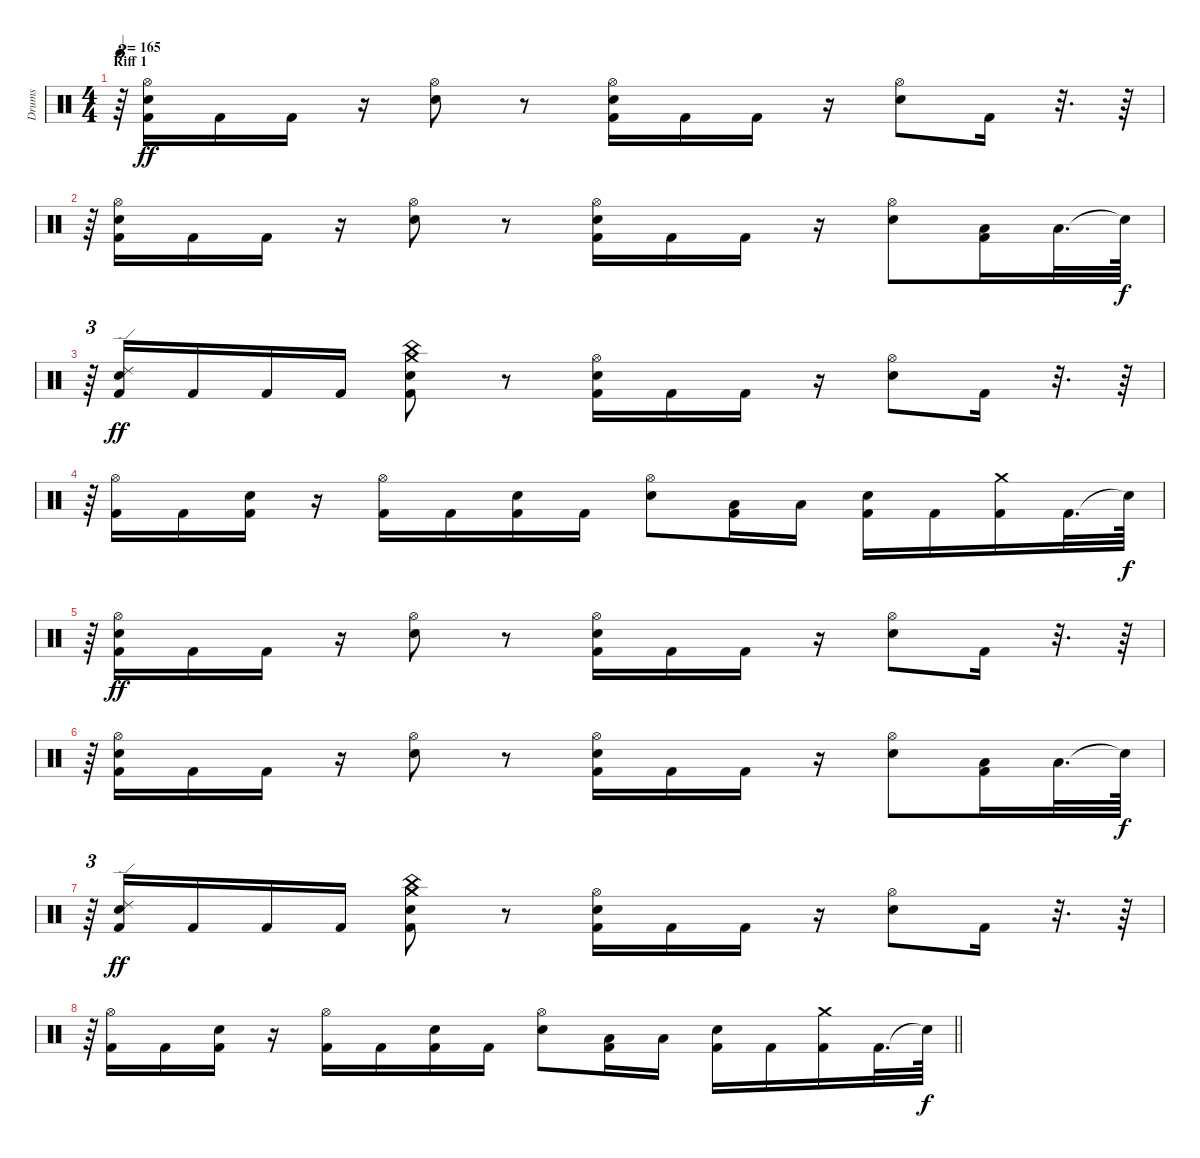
\track ("Drums" "Drums") {instrument percussion}
\staff {score}
\articulation defaults
\ts (4 4)
\section ("" "Riff 1")
\tempo 165
\clef neutral
\ks c
r.64{tu (3 2) dy ff} ("Kick (hit) 2" "Snare (hit) 2" "Hi-Hat (open)").16 "Kick (hit) 2".16 "Kick (hit) 2".16 r.16 ("Snare (hit) 2" "Hi-Hat (open)").8 r.8 ("Kick (hit) 2" "Snare (hit) 2" "Hi-Hat (open)").16 "Kick (hit) 2".16 "Kick (hit) 2".16 r.16 ("Snare (hit) 2" "Hi-Hat (open)").8 "Kick (hit) 2".16 r.32{d} r.64 |
r.64{tu (3 2)} ("Kick (hit) 2" "Snare (hit) 2" "Hi-Hat (open)").16 "Kick (hit) 2".16 "Kick (hit) 2".16 r.16 ("Snare (hit) 2" "Hi-Hat (open)").8 r.8 ("Kick (hit) 2" "Snare (hit) 2" "Hi-Hat (open)").16 "Kick (hit) 2".16 "Kick (hit) 2".16 r.16 ("Snare (hit) 2" "Hi-Hat (open)").8 ("Kick (hit) 2" "Low Tom (hit)").16 "Low Floor Tom (hit)".32{d} "Snare (hit)"{t}.64{dy f} |
r.64{tu (3 2)} ("Kick (hit) 2" "Snare (hit) 2" "Ride (edge) 2").16{dy ff} "Kick (hit) 2".16 "Kick (hit) 2".16 "Kick (hit) 2".16 ("Kick (hit) 2" "Snare (hit) 2" "Crash medium (hit)" "China (hit)").8 r.8 ("Kick (hit) 2" "Snare (hit) 2" "Hi-Hat (open)").16 "Kick (hit) 2".16 "Kick (hit) 2".16 r.16 ("Snare (hit) 2" "Hi-Hat (open)").8 "Kick (hit) 2".16 r.32{d} r.64 |
r.64{tu (3 2)} ("Kick (hit) 2" "Hi-Hat (open)").16 "Kick (hit) 2".16 ("Kick (hit) 2" "Snare (hit) 2").16 r.16 ("Kick (hit) 2" "Hi-Hat (open)").16 "Kick (hit) 2".16 ("Kick (hit) 2" "Snare (hit) 2").16 "Kick (hit) 2".16 ("Snare (hit) 2" "Hi-Hat (open)").8 ("Kick (hit) 2" "Low Tom (hit)").16 "Low Tom (hit)".16 ("Kick (hit) 2" "Snare (hit) 2").16 "Kick (hit) 2".16 ("Kick (hit) 2" "Crash medium (hit)").16 "Kick (hit) 2".32{d} "Snare (hit)"{t}.64{dy f} |
r.64{tu (3 2)} ("Kick (hit) 2" "Snare (hit) 2" "Hi-Hat (open)").16{dy ff} "Kick (hit) 2".16 "Kick (hit) 2".16 r.16 ("Snare (hit) 2" "Hi-Hat (open)").8 r.8 ("Kick (hit) 2" "Snare (hit) 2" "Hi-Hat (open)").16 "Kick (hit) 2".16 "Kick (hit) 2".16 r.16 ("Snare (hit) 2" "Hi-Hat (open)").8 "Kick (hit) 2".16 r.32{d} r.64 |
r.64{tu (3 2)} ("Kick (hit) 2" "Snare (hit) 2" "Hi-Hat (open)").16 "Kick (hit) 2".16 "Kick (hit) 2".16 r.16 ("Snare (hit) 2" "Hi-Hat (open)").8 r.8 ("Kick (hit) 2" "Snare (hit) 2" "Hi-Hat (open)").16 "Kick (hit) 2".16 "Kick (hit) 2".16 r.16 ("Snare (hit) 2" "Hi-Hat (open)").8 ("Kick (hit) 2" "Low Tom (hit)").16 "Low Floor Tom (hit)".32{d} "Snare (hit)"{t}.64{dy f} |
r.64{tu (3 2)} ("Kick (hit) 2" "Snare (hit) 2" "Ride (edge) 2").16{dy ff} "Kick (hit) 2".16 "Kick (hit) 2".16 "Kick (hit) 2".16 ("Kick (hit) 2" "Snare (hit) 2" "Crash medium (hit)" "China (hit)").8 r.8 ("Kick (hit) 2" "Snare (hit) 2" "Hi-Hat (open)").16 "Kick (hit) 2".16 "Kick (hit) 2".16 r.16 ("Snare (hit) 2" "Hi-Hat (open)").8 "Kick (hit) 2".16 r.32{d} r.64 |
\barLineRight lightlight
r.64{tu (3 2)} ("Kick (hit) 2" "Hi-Hat (open)").16 "Kick (hit) 2".16 ("Kick (hit) 2" "Snare (hit) 2").16 r.16 ("Kick (hit) 2" "Hi-Hat (open)").16 "Kick (hit) 2".16 ("Kick (hit) 2" "Snare (hit) 2").16 "Kick (hit) 2".16 ("Snare (hit) 2" "Hi-Hat (open)").8 ("Kick (hit) 2" "Low Tom (hit)").16 "Low Tom (hit)".16 ("Kick (hit) 2" "Snare (hit) 2").16 "Kick (hit) 2".16 ("Kick (hit) 2" "Crash medium (hit)").16 "Kick (hit) 2".32{d} "Snare (hit)"{t}.64{dy f}
